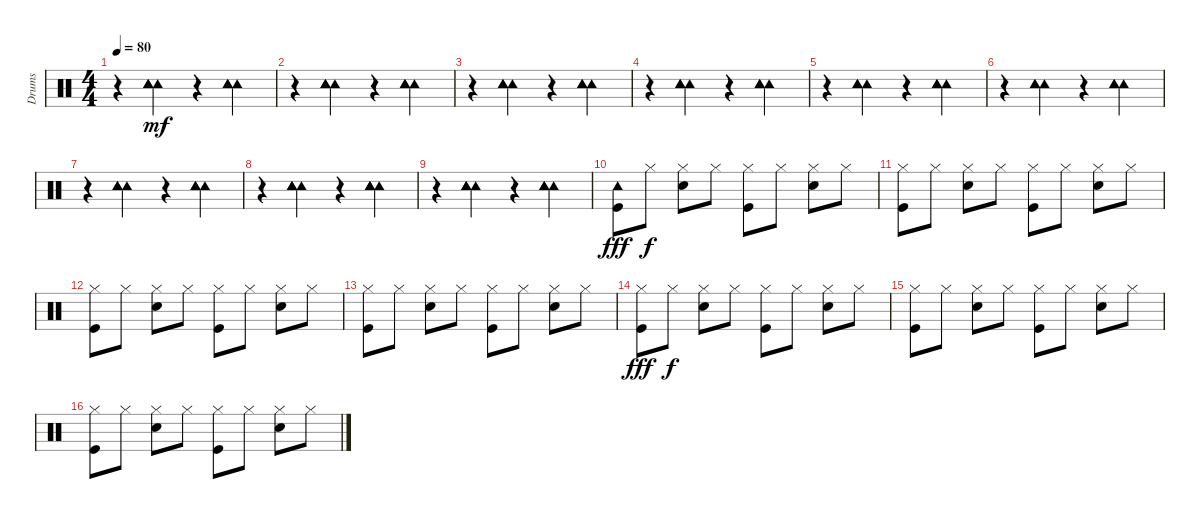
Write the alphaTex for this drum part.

\track ("Drums" "Drums") {instrument percussion}
\staff {score}
\articulation defaults
\ts (4 4)
\tempo 80
\clef neutral
\ks c
r.4{dy mf} ("Tambourine (hit)" "Tambourine (hit)" "Tambourine (hit)" "Tambourine (hit)").4{bd 30} r.4 ("Tambourine (hit)" "Tambourine (hit)" "Tambourine (hit)" "Tambourine (hit)").4{bd 30} |
r.4 ("Tambourine (hit)" "Tambourine (hit)" "Tambourine (hit)" "Tambourine (hit)").4{bd 30} r.4 ("Tambourine (hit)" "Tambourine (hit)" "Tambourine (hit)" "Tambourine (hit)").4{bd 30} |
r.4 ("Tambourine (hit)" "Tambourine (hit)" "Tambourine (hit)" "Tambourine (hit)").4{bd 30} r.4 ("Tambourine (hit)" "Tambourine (hit)" "Tambourine (hit)" "Tambourine (hit)").4{bd 30} |
r.4 ("Tambourine (hit)" "Tambourine (hit)" "Tambourine (hit)" "Tambourine (hit)").4{bd 30} r.4 ("Tambourine (hit)" "Tambourine (hit)" "Tambourine (hit)" "Tambourine (hit)").4{bd 30} |
r.4 ("Tambourine (hit)" "Tambourine (hit)" "Tambourine (hit)" "Tambourine (hit)").4{bd 30} r.4 ("Tambourine (hit)" "Tambourine (hit)" "Tambourine (hit)" "Tambourine (hit)").4{bd 30} |
r.4 ("Tambourine (hit)" "Tambourine (hit)" "Tambourine (hit)" "Tambourine (hit)").4{bd 30} r.4 ("Tambourine (hit)" "Tambourine (hit)" "Tambourine (hit)" "Tambourine (hit)").4{bd 30} |
r.4 ("Tambourine (hit)" "Tambourine (hit)" "Tambourine (hit)" "Tambourine (hit)").4{bd 30} r.4 ("Tambourine (hit)" "Tambourine (hit)" "Tambourine (hit)" "Tambourine (hit)").4{bd 30} |
r.4 ("Tambourine (hit)" "Tambourine (hit)" "Tambourine (hit)" "Tambourine (hit)").4{bd 30} r.4 ("Tambourine (hit)" "Tambourine (hit)" "Tambourine (hit)" "Tambourine (hit)").4{bd 30} |
r.4 ("Tambourine (hit)" "Tambourine (hit)" "Tambourine (hit)" "Tambourine (hit)").4{bd 30} r.4 ("Tambourine (hit)" "Tambourine (hit)" "Tambourine (hit)" "Tambourine (hit)").4{bd 30} |
("Tambourine (hit)" "Kick (hit)").8{dy fff} "Hi-Hat (closed)".8{dy f} ("Hi-Hat (closed)" "Snare (hit) 2").8 "Hi-Hat (closed)".8 ("Hi-Hat (closed)" "Kick (hit)").8 "Hi-Hat (closed)".8 ("Hi-Hat (closed)" "Snare (hit) 2").8 "Hi-Hat (closed)".8 |
("Hi-Hat (closed)" "Kick (hit)").8 "Hi-Hat (closed)".8 ("Hi-Hat (closed)" "Snare (hit) 2").8 "Hi-Hat (closed)".8 ("Hi-Hat (closed)" "Kick (hit)").8 "Hi-Hat (closed)".8 ("Hi-Hat (closed)" "Snare (hit) 2").8 "Hi-Hat (closed)".8 |
("Hi-Hat (closed)" "Kick (hit)").8 "Hi-Hat (closed)".8 ("Hi-Hat (closed)" "Snare (hit) 2").8 "Hi-Hat (closed)".8 ("Hi-Hat (closed)" "Kick (hit)").8 "Hi-Hat (closed)".8 ("Hi-Hat (closed)" "Snare (hit) 2").8 "Hi-Hat (closed)".8 |
("Hi-Hat (closed)" "Kick (hit)").8 "Hi-Hat (closed)".8 ("Hi-Hat (closed)" "Snare (hit) 2").8 "Hi-Hat (closed)".8 ("Hi-Hat (closed)" "Kick (hit)").8 "Hi-Hat (closed)".8 ("Hi-Hat (closed)" "Snare (hit) 2").8 "Hi-Hat (closed)".8 |
("Hi-Hat (closed)" "Kick (hit)").8{dy fff} "Hi-Hat (closed)".8{dy f} ("Hi-Hat (closed)" "Snare (hit) 2").8 "Hi-Hat (closed)".8 ("Hi-Hat (closed)" "Kick (hit)").8 "Hi-Hat (closed)".8 ("Hi-Hat (closed)" "Snare (hit) 2").8 "Hi-Hat (closed)".8 |
("Hi-Hat (closed)" "Kick (hit)").8 "Hi-Hat (closed)".8 ("Hi-Hat (closed)" "Snare (hit) 2").8 "Hi-Hat (closed)".8 ("Hi-Hat (closed)" "Kick (hit)").8 "Hi-Hat (closed)".8 ("Hi-Hat (closed)" "Snare (hit) 2").8 "Hi-Hat (closed)".8 |
("Hi-Hat (closed)" "Kick (hit)").8 "Hi-Hat (closed)".8 ("Hi-Hat (closed)" "Snare (hit) 2").8 "Hi-Hat (closed)".8 ("Hi-Hat (closed)" "Kick (hit)").8 "Hi-Hat (closed)".8 ("Hi-Hat (closed)" "Snare (hit) 2").8 "Hi-Hat (closed)".8
